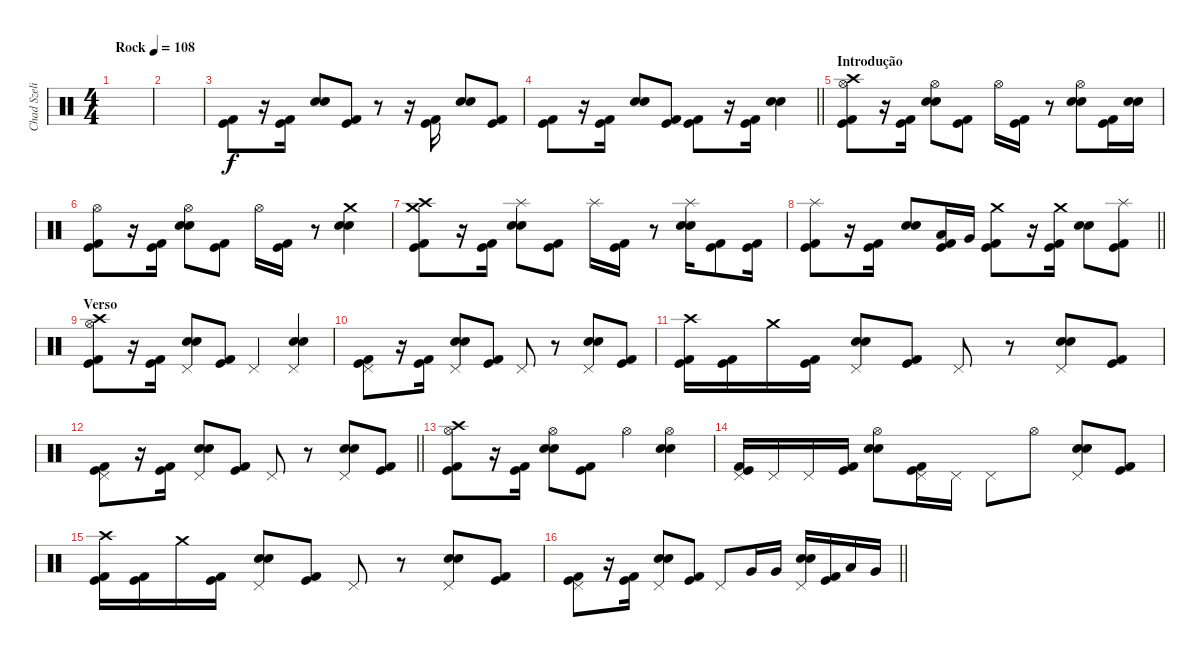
\track ("Chad Szeliga" "Chad Szeli") {instrument percussion}
\staff {score}
\articulation defaults
\ts (4 4)
\section ("" "")
\tempo (108 "Rock")
\clef neutral
\ks c
|
|
("Kick (hit) 2" "Kick (hit)").8 r.16 ("Kick (hit) 2" "Kick (hit)").16{beam Down} ("Snare (hit) 2" "Snare (hit) 2").8 ("Kick (hit) 2" "Kick (hit)").8 r.8 r.16 ("Kick (hit) 2" "Kick (hit)").16{beam Down} ("Snare (hit) 2" "Snare (hit) 2").8 ("Kick (hit) 2" "Kick (hit)").8 |
\barLineRight lightlight
("Kick (hit) 2" "Kick (hit)").8 r.16 ("Kick (hit) 2" "Kick (hit)").16{beam Down} ("Snare (hit) 2" "Snare (hit) 2").8 ("Kick (hit) 2" "Kick (hit)").8 ("Kick (hit) 2" "Kick (hit)").8 r.16 ("Kick (hit) 2" "Kick (hit)").16{beam Down} ("Snare (hit) 2" "Snare (hit) 2").4 |
\section ("" "Introdução")
("Crash high (hit)" "Kick (hit) 2" "Kick (hit)" "Hi-Hat (open)").8 r.16 ("Kick (hit) 2" "Kick (hit)").16{beam Down} ("Snare (hit) 2" "Snare (hit) 2" "Hi-Hat (open)").8 ("Kick (hit) 2" "Kick (hit)").8 "Hi-Hat (open)".16 ("Kick (hit) 2" "Kick (hit)").16 r.8 ("Snare (hit) 2" "Snare (hit) 2" "Hi-Hat (open)").8 ("Kick (hit) 2" "Kick (hit)").16 ("Snare (hit) 2" "Snare (hit) 2").16 |
("Kick (hit) 2" "Kick (hit)" "Hi-Hat (open)").8 r.16 ("Kick (hit) 2" "Kick (hit)").16{beam Down} ("Snare (hit) 2" "Snare (hit) 2" "Hi-Hat (open)").8 ("Kick (hit) 2" "Kick (hit)").8 "Hi-Hat (open)".16 ("Kick (hit) 2" "Kick (hit)").16 r.8 ("Crash medium (hit)" "Snare (hit) 2" "Snare (hit) 2").4 |
("Crash high (hit)" "Kick (hit) 2" "Kick (hit)" "Crash medium (hit)").8 r.16 ("Kick (hit) 2" "Kick (hit)").16{beam Down} ("Splash (hit)" "Snare (hit) 2" "Snare (hit) 2").8 ("Kick (hit) 2" "Kick (hit)").8 "Splash (hit)".16 ("Kick (hit) 2" "Kick (hit)").16 r.8 ("Splash (hit)" "Snare (hit) 2" "Snare (hit) 2").16 ("Kick (hit) 2" "Kick (hit)").8 ("Kick (hit) 2" "Kick (hit)").16 |
\barLineRight lightlight
("Splash (hit)" "Kick (hit) 2" "Kick (hit)").8 r.16 ("Kick (hit) 2" "Kick (hit)").16{beam Down} ("Snare (hit) 2" "Snare (hit) 2").8 ("Kick (hit) 2" "Kick (hit)" "Low Tom (hit)").16 "Very Low Tom (hit)".16 ("Crash medium (hit)" "Kick (hit) 2" "Kick (hit)").8 r.16 ("Crash medium (hit)" "Kick (hit) 2" "Kick (hit)").16 ("Snare (hit) 2" "Snare (hit) 2").8 ("Splash (hit)" "Kick (hit) 2" "Kick (hit)").8 |
\section ("" "Verso")
("Crash high (hit)" "Kick (hit) 2" "Kick (hit)" "Hi-Hat (open)").8 r.16 ("Kick (hit) 2" "Kick (hit)").16{beam Down} ("Snare (hit) 2" "Snare (hit) 2" "Pedal Hi-Hat (hit)").8 ("Kick (hit) 2" "Kick (hit)").8 "Pedal Hi-Hat (hit)".4 ("Snare (hit) 2" "Snare (hit) 2" "Pedal Hi-Hat (hit)").4 |
("Kick (hit) 2" "Kick (hit)" "Pedal Hi-Hat (hit)").8 r.16 ("Kick (hit) 2" "Kick (hit)").16{beam Down} ("Snare (hit) 2" "Snare (hit) 2" "Pedal Hi-Hat (hit)").8 ("Kick (hit) 2" "Kick (hit)").8 "Pedal Hi-Hat (hit)".8 r.8 ("Snare (hit) 2" "Snare (hit) 2" "Pedal Hi-Hat (hit)").8 ("Kick (hit) 2" "Kick (hit)").8 |
("Crash high (hit)" "Kick (hit) 2" "Kick (hit)").16 ("Kick (hit) 2" "Kick (hit)").16 "Crash medium (hit)".16 ("Kick (hit) 2" "Kick (hit)").16 ("Snare (hit) 2" "Snare (hit) 2" "Pedal Hi-Hat (hit)").8 ("Kick (hit) 2" "Kick (hit)").8 "Pedal Hi-Hat (hit)".8 r.8 ("Snare (hit) 2" "Snare (hit) 2" "Pedal Hi-Hat (hit)").8 ("Kick (hit) 2" "Kick (hit)").8 |
\barLineRight lightlight
("Kick (hit) 2" "Kick (hit)" "Pedal Hi-Hat (hit)").8 r.16 ("Kick (hit) 2" "Kick (hit)").16{beam Down} ("Snare (hit) 2" "Snare (hit) 2" "Pedal Hi-Hat (hit)").8 ("Kick (hit) 2" "Kick (hit)").8 "Pedal Hi-Hat (hit)".8 r.8 ("Snare (hit) 2" "Snare (hit) 2" "Pedal Hi-Hat (hit)").8 ("Kick (hit) 2" "Kick (hit)").8 |
("Crash high (hit)" "Kick (hit) 2" "Kick (hit)" "Hi-Hat (open)").8 r.16 ("Kick (hit) 2" "Kick (hit)").16{beam Down} ("Snare (hit) 2" "Snare (hit) 2" "Hi-Hat (open)").8 ("Kick (hit) 2" "Kick (hit)").8 "Hi-Hat (open)".4 ("Snare (hit) 2" "Snare (hit) 2" "Hi-Hat (open)").4 |
("Kick (hit) 2" "Kick (hit)" "Pedal Hi-Hat (hit)").16 "Pedal Hi-Hat (hit)".16 "Pedal Hi-Hat (hit)".16 ("Kick (hit) 2" "Kick (hit)").16 ("Snare (hit) 2" "Snare (hit) 2" "Hi-Hat (open)").8 ("Kick (hit) 2" "Kick (hit)" "Pedal Hi-Hat (hit)").16 "Pedal Hi-Hat (hit)".16 "Pedal Hi-Hat (hit)".8 "Hi-Hat (open)".8 ("Snare (hit) 2" "Snare (hit) 2" "Pedal Hi-Hat (hit)").8 ("Kick (hit) 2" "Kick (hit)").8 |
("Crash high (hit)" "Kick (hit) 2" "Kick (hit)").16 ("Kick (hit) 2" "Kick (hit)").16 "Crash medium (hit)".16 ("Kick (hit) 2" "Kick (hit)").16 ("Snare (hit) 2" "Snare (hit) 2" "Pedal Hi-Hat (hit)").8 ("Kick (hit) 2" "Kick (hit)").8 "Pedal Hi-Hat (hit)".8 r.8 ("Snare (hit) 2" "Snare (hit) 2" "Pedal Hi-Hat (hit)").8 ("Kick (hit) 2" "Kick (hit)").8 |
\barLineRight lightlight
("Kick (hit) 2" "Kick (hit)" "Pedal Hi-Hat (hit)").8 r.16 ("Kick (hit) 2" "Kick (hit)").16{beam Down} ("Snare (hit) 2" "Snare (hit) 2" "Pedal Hi-Hat (hit)").8 ("Kick (hit) 2" "Kick (hit)").8 "Pedal Hi-Hat (hit)".8 "Very Low Tom (hit)".16 "Very Low Tom (hit)".16 ("Snare (hit) 2" "Snare (hit) 2" "Pedal Hi-Hat (hit)").16 ("Kick (hit) 2" "Kick (hit)").16 "Low Tom (hit)".16 "Very Low Tom (hit)".16
